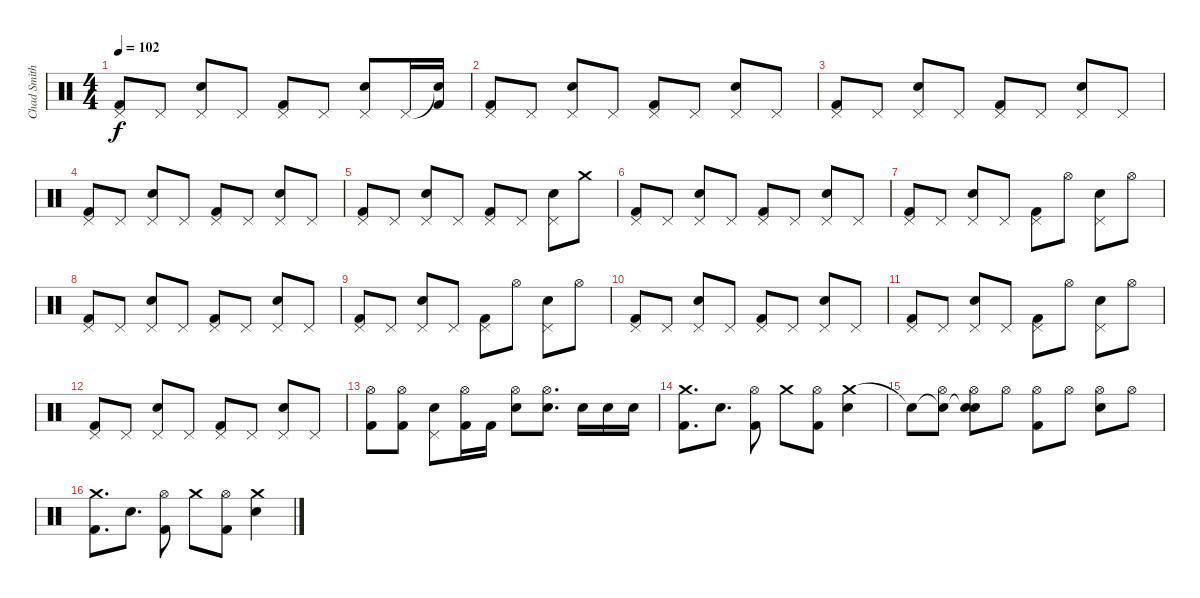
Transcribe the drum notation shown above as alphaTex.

\track ("Chad Smith (Batterie)" "Chad Smith") {instrument percussion}
\staff {score}
\articulation defaults
\ts (4 4)
\tempo 102
\clef neutral
\ks c
("Pedal Hi-Hat (hit)" "Kick (hit) 2").8{dy f} "Pedal Hi-Hat (hit)".8 ("Pedal Hi-Hat (hit)" "Electric Snare (hit)").8 "Pedal Hi-Hat (hit)".8 ("Pedal Hi-Hat (hit)" "Kick (hit) 2").8 "Pedal Hi-Hat (hit)".8 ("Pedal Hi-Hat (hit)" "Electric Snare (hit)").8 "Pedal Hi-Hat (hit)".16 ("Snare (hit)"{t} "Kick (hit) 2").16 |
("Pedal Hi-Hat (hit)" "Kick (hit) 2").8 "Pedal Hi-Hat (hit)".8 ("Pedal Hi-Hat (hit)" "Electric Snare (hit)").8 "Pedal Hi-Hat (hit)".8 ("Pedal Hi-Hat (hit)" "Kick (hit) 2").8 "Pedal Hi-Hat (hit)".8 ("Pedal Hi-Hat (hit)" "Electric Snare (hit)").8 "Pedal Hi-Hat (hit)".8 |
("Pedal Hi-Hat (hit)" "Kick (hit) 2").8 "Pedal Hi-Hat (hit)".8 ("Pedal Hi-Hat (hit)" "Electric Snare (hit)").8 "Pedal Hi-Hat (hit)".8 ("Pedal Hi-Hat (hit)" "Kick (hit) 2").8 "Pedal Hi-Hat (hit)".8 ("Pedal Hi-Hat (hit)" "Electric Snare (hit)").8 "Pedal Hi-Hat (hit)".8 |
("Pedal Hi-Hat (hit)" "Kick (hit) 2").8 "Pedal Hi-Hat (hit)".8 ("Pedal Hi-Hat (hit)" "Electric Snare (hit)").8 "Pedal Hi-Hat (hit)".8 ("Pedal Hi-Hat (hit)" "Kick (hit) 2").8 "Pedal Hi-Hat (hit)".8 ("Pedal Hi-Hat (hit)" "Electric Snare (hit)").8 "Pedal Hi-Hat (hit)".8 |
("Pedal Hi-Hat (hit)" "Kick (hit) 2").8 "Pedal Hi-Hat (hit)".8 ("Pedal Hi-Hat (hit)" "Electric Snare (hit)").8 "Pedal Hi-Hat (hit)".8 ("Pedal Hi-Hat (hit)" "Kick (hit) 2").8 "Pedal Hi-Hat (hit)".8 ("Pedal Hi-Hat (hit)" "Electric Snare (hit)").8 "Crash medium (hit)".8 |
("Pedal Hi-Hat (hit)" "Kick (hit) 2").8 "Pedal Hi-Hat (hit)".8 ("Pedal Hi-Hat (hit)" "Electric Snare (hit)").8 "Pedal Hi-Hat (hit)".8 ("Pedal Hi-Hat (hit)" "Kick (hit) 2").8 "Pedal Hi-Hat (hit)".8 ("Pedal Hi-Hat (hit)" "Electric Snare (hit)").8 "Pedal Hi-Hat (hit)".8 |
("Pedal Hi-Hat (hit)" "Kick (hit) 2").8 "Pedal Hi-Hat (hit)".8 ("Pedal Hi-Hat (hit)" "Electric Snare (hit)").8 "Pedal Hi-Hat (hit)".8 ("Pedal Hi-Hat (hit)" "Kick (hit) 2").8 "Hi-Hat (open)".8 ("Pedal Hi-Hat (hit)" "Electric Snare (hit)").8 "Hi-Hat (open)".8 |
("Pedal Hi-Hat (hit)" "Kick (hit) 2").8 "Pedal Hi-Hat (hit)".8 ("Pedal Hi-Hat (hit)" "Electric Snare (hit)").8 "Pedal Hi-Hat (hit)".8 ("Pedal Hi-Hat (hit)" "Kick (hit) 2").8 "Pedal Hi-Hat (hit)".8 ("Pedal Hi-Hat (hit)" "Electric Snare (hit)").8 "Pedal Hi-Hat (hit)".8 |
("Pedal Hi-Hat (hit)" "Kick (hit) 2").8 "Pedal Hi-Hat (hit)".8 ("Pedal Hi-Hat (hit)" "Electric Snare (hit)").8 "Pedal Hi-Hat (hit)".8 ("Pedal Hi-Hat (hit)" "Kick (hit) 2").8 "Hi-Hat (open)".8 ("Pedal Hi-Hat (hit)" "Electric Snare (hit)").8 "Hi-Hat (open)".8 |
("Pedal Hi-Hat (hit)" "Kick (hit) 2").8 "Pedal Hi-Hat (hit)".8 ("Pedal Hi-Hat (hit)" "Electric Snare (hit)").8 "Pedal Hi-Hat (hit)".8 ("Pedal Hi-Hat (hit)" "Kick (hit) 2").8 "Pedal Hi-Hat (hit)".8 ("Pedal Hi-Hat (hit)" "Electric Snare (hit)").8 "Pedal Hi-Hat (hit)".8 |
("Pedal Hi-Hat (hit)" "Kick (hit) 2").8 "Pedal Hi-Hat (hit)".8 ("Pedal Hi-Hat (hit)" "Electric Snare (hit)").8 "Pedal Hi-Hat (hit)".8 ("Pedal Hi-Hat (hit)" "Kick (hit) 2").8 "Hi-Hat (open)".8 ("Pedal Hi-Hat (hit)" "Electric Snare (hit)").8 "Hi-Hat (open)".8 |
("Pedal Hi-Hat (hit)" "Kick (hit) 2").8 "Pedal Hi-Hat (hit)".8 ("Pedal Hi-Hat (hit)" "Electric Snare (hit)").8 "Pedal Hi-Hat (hit)".8 ("Pedal Hi-Hat (hit)" "Kick (hit) 2").8 "Pedal Hi-Hat (hit)".8 ("Pedal Hi-Hat (hit)" "Electric Snare (hit)").8 "Pedal Hi-Hat (hit)".8 |
("Hi-Hat (open)" "Kick (hit) 2").8 ("Hi-Hat (open)" "Kick (hit) 2").8 ("Pedal Hi-Hat (hit)" "Electric Snare (hit)").8 ("Hi-Hat (open)" "Kick (hit) 2").16 "Kick (hit) 2".16 ("Hi-Hat (open)" "Electric Snare (hit)").8 ("Hi-Hat (open)" "Electric Snare (hit)").8{d} "Electric Snare (hit)".16 "Electric Snare (hit)".16 "Electric Snare (hit)".16 |
("Crash medium (hit)" "Kick (hit) 2").8{d} "Electric Snare (hit)".8{d} ("Hi-Hat (open)" "Kick (hit) 2").8 "Crash medium (hit)".8 ("Hi-Hat (open)" "Kick (hit) 2").8 ("Crash medium (hit)" "Electric Snare (hit)").4 |
"Snare (hit)"{t}.8 ("Snare (hit)"{t} "Hi-Hat (open)").8 ("Snare (hit)"{t} "Hi-Hat (open)" "Electric Snare (hit)").8 "Hi-Hat (open)".8 ("Hi-Hat (open)" "Kick (hit) 2").8 "Hi-Hat (open)".8 ("Hi-Hat (open)" "Electric Snare (hit)").8 "Hi-Hat (open)".8 |
("Crash medium (hit)" "Kick (hit) 2").8{d} "Electric Snare (hit)".8{d} ("Hi-Hat (open)" "Kick (hit) 2").8 "Crash medium (hit)".8 ("Hi-Hat (open)" "Kick (hit) 2").8 ("Crash medium (hit)" "Electric Snare (hit)").4
